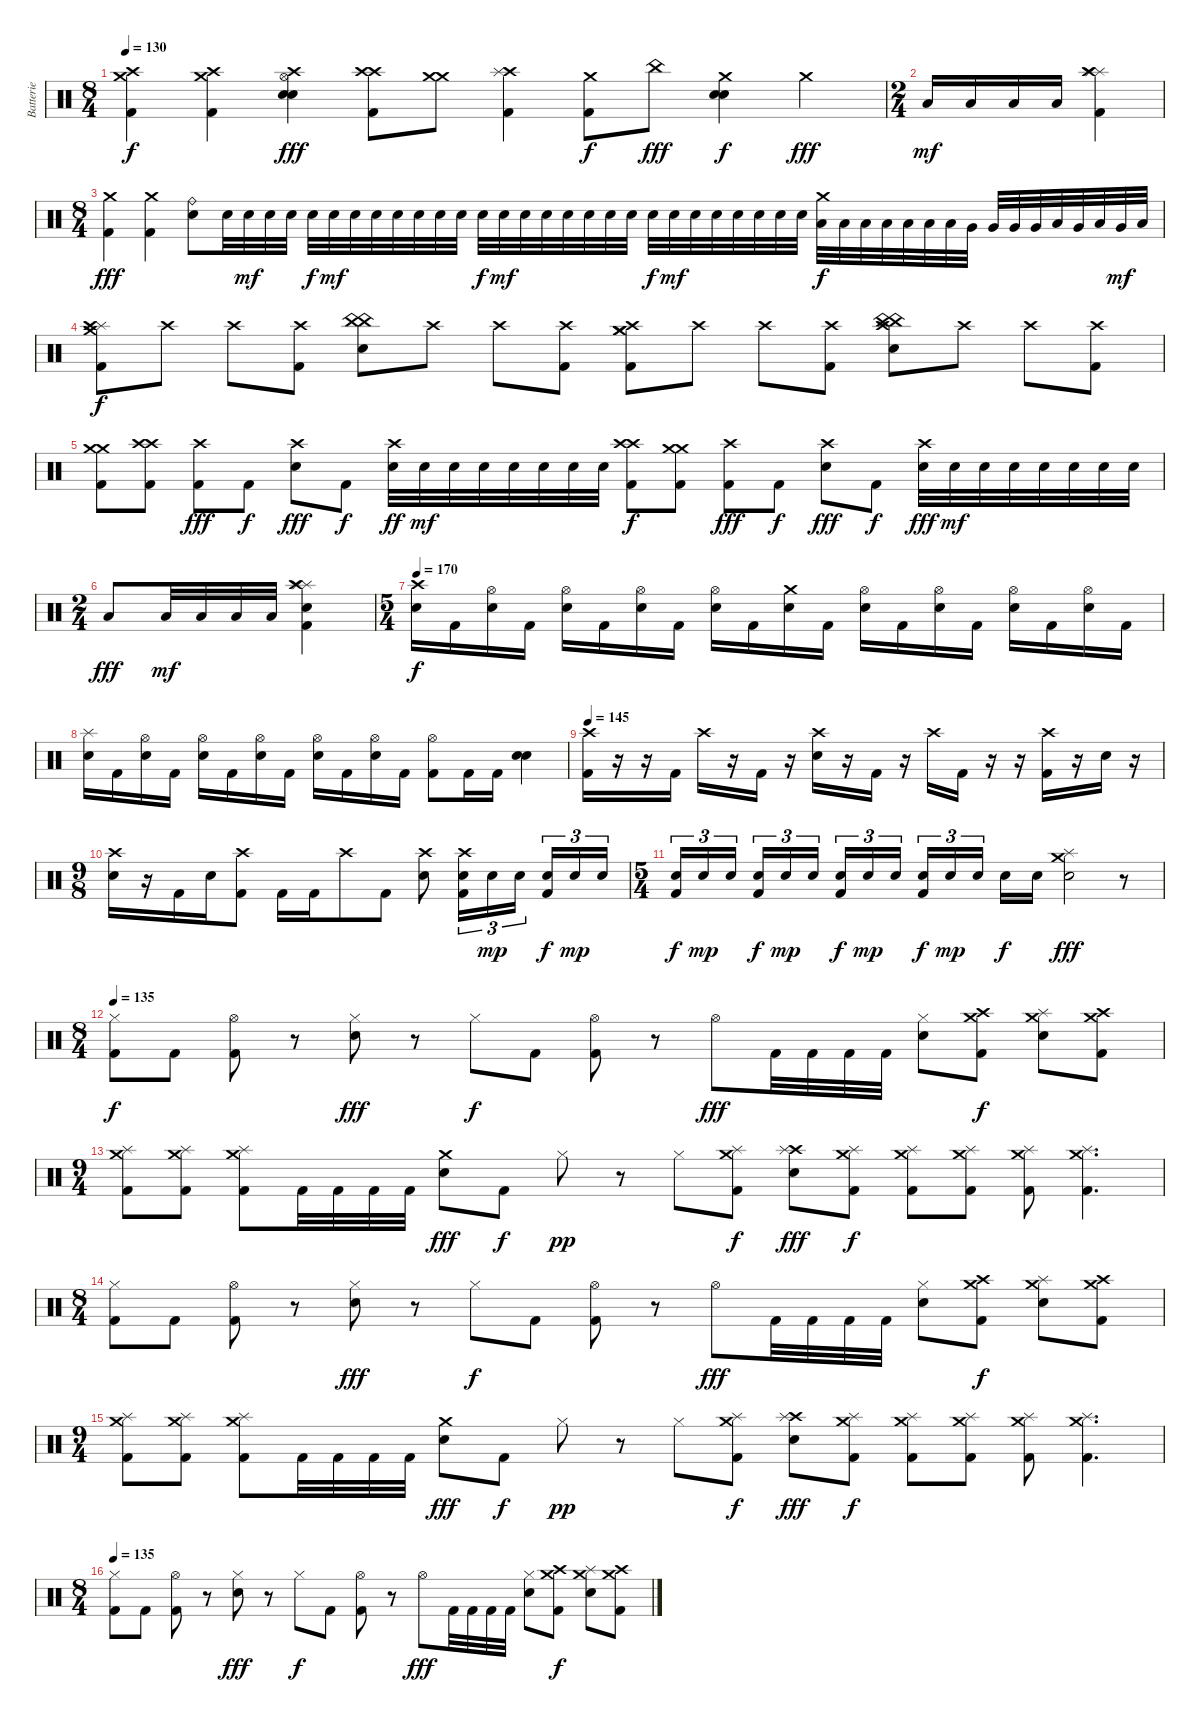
\track ("Batterie" "Batterie") {instrument percussion}
\staff {score}
\articulation defaults
\ts (8 4)
\tempo 130
\clef neutral
\ks c
("Crash high (hit)" "Crash medium (hit)" "Kick (hit) 2").4{dy f} ("Crash high (hit)" "Crash medium (hit)" "Kick (hit) 2").4 ("Crash high (hit)" "Hi-Hat (open)" "Electric Snare (hit)" "Electric Snare (hit)").4{dy fff} ("Crash high (hit)" "Crash high (hit)" "Kick (hit) 2").8 ("Crash medium (hit)" "Crash medium (hit)").8 ("Crash high (hit)" "Splash (hit)" "Kick (hit) 2").4 ("Crash medium (hit)" "Kick (hit) 2").8{dy f} "China (hit)".8{dy fff} ("Crash medium (hit)" "Electric Snare (hit)" "Electric Snare (hit)").4{dy f} "Crash medium (hit)".4{dy fff} |
\ts (2 4)
"Low Floor Tom (hit)".16{dy mf} "Low Floor Tom (hit)".16 "Low Floor Tom (hit)".16 "Low Floor Tom (hit)".16 ("Splash (hit)" "Crash high (hit)" "Splash (hit)" "Kick (hit) 2").4 |
\ts (8 4)
("Crash medium (hit)" "Kick (hit) 2").4{dy fff} ("Crash medium (hit)" "Kick (hit) 2").4 ("Ride (bell)" "Electric Snare (hit)").8 "Electric Snare (hit)".32 "Electric Snare (hit)".32{dy mf} "Electric Snare (hit)".32 "Electric Snare (hit)".32 "Electric Snare (hit)".32{dy f} "Electric Snare (hit)".32{dy mf} "Electric Snare (hit)".32 "Electric Snare (hit)".32 "Electric Snare (hit)".32 "Electric Snare (hit)".32 "Electric Snare (hit)".32 "Electric Snare (hit)".32 "Electric Snare (hit)".32{dy f} "Electric Snare (hit)".32{dy mf} "Electric Snare (hit)".32 "Electric Snare (hit)".32 "Electric Snare (hit)".32 "Electric Snare (hit)".32 "Electric Snare (hit)".32 "Electric Snare (hit)".32 "Electric Snare (hit)".32{dy f} "Electric Snare (hit)".32{dy mf} "Electric Snare (hit)".32 "Electric Snare (hit)".32 "Electric Snare (hit)".32 "Electric Snare (hit)".32 "Electric Snare (hit)".32 "Electric Snare (hit)".32 ("Crash medium (hit)" "Low Tom (hit)").32{dy f} "Low Tom (hit)".32 "Low Tom (hit)".32 "Low Tom (hit)".32 "Low Tom (hit)".32 "Low Tom (hit)".32 "Low Tom (hit)".32 "Very Low Tom (hit)".32 "Very Low Tom (hit)".32 "Very Low Tom (hit)".32 "Very Low Tom (hit)".32 "Low Tom (hit)".32 "Very Low Tom (hit)".32 "Low Floor Tom (hit)".32 "Very Low Tom (hit)".32{dy mf} "Low Floor Tom (hit)".32 |
("Crash medium (hit)" "Splash (hit)" "Crash high (hit)" "Kick (hit) 2").8{dy f} "Crash high (hit)".8 "Crash high (hit)".8 ("Crash high (hit)" "Kick (hit) 2").8 ("China (hit)" "China (hit)" "Electric Snare (hit)").8 "Crash high (hit)".8 "Crash high (hit)".8 ("Crash high (hit)" "Kick (hit) 2").8 ("Crash medium (hit)" "Crash medium (hit)" "Crash high (hit)" "Kick (hit) 2").8 "Crash high (hit)".8 "Crash high (hit)".8 ("Crash high (hit)" "Kick (hit) 2").8 ("China (hit)" "China (hit)" "Crash high (hit)" "Electric Snare (hit)").8 "Crash high (hit)".8 "Crash high (hit)".8 ("Crash high (hit)" "Kick (hit) 2").8 |
("Crash medium (hit)" "Crash medium (hit)" "Kick (hit) 2").8 ("Crash high (hit)" "Crash high (hit)" "Kick (hit) 2").8 ("Crash high (hit)" "Kick (hit) 2").8{dy fff} "Kick (hit) 2".8{dy f} ("Crash high (hit)" "Electric Snare (hit)").8{dy fff} "Kick (hit) 2".8{dy f} ("Crash high (hit)" "Electric Snare (hit)").32{dy ff} "Electric Snare (hit)".32{dy mf} "Electric Snare (hit)".32 "Electric Snare (hit)".32 "Electric Snare (hit)".32 "Electric Snare (hit)".32 "Electric Snare (hit)".32 "Electric Snare (hit)".32 ("Crash high (hit)" "Crash high (hit)" "Kick (hit) 2").8{dy f} ("Crash medium (hit)" "Crash medium (hit)" "Kick (hit) 2").8 ("Crash high (hit)" "Kick (hit) 2").8{dy fff} "Kick (hit) 2".8{dy f} ("Crash high (hit)" "Electric Snare (hit)").8{dy fff} "Kick (hit) 2".8{dy f} ("Crash high (hit)" "Electric Snare (hit)").32{dy fff} "Electric Snare (hit)".32{dy mf} "Electric Snare (hit)".32 "Electric Snare (hit)".32 "Electric Snare (hit)".32 "Electric Snare (hit)".32 "Electric Snare (hit)".32 "Electric Snare (hit)".32 |
\ts (2 4)
"Low Floor Tom (hit)".8{dy fff} "Low Floor Tom (hit)".32{dy mf} "Low Floor Tom (hit)".32 "Low Floor Tom (hit)".32 "Low Floor Tom (hit)".32 ("Splash (hit)" "Crash high (hit)" "Splash (hit)" "Electric Snare (hit)" "Kick (hit) 2").4 |
\ts (5 4)
\tempo 170
("Crash high (hit)" "Electric Snare (hit)").16{dy f} "Kick (hit) 2".16 ("Hi-Hat (open)" "Electric Snare (hit)").16 "Kick (hit) 2".16 ("Hi-Hat (open)" "Electric Snare (hit)").16 "Kick (hit) 2".16 ("Hi-Hat (open)" "Electric Snare (hit)").16 "Kick (hit) 2".16 ("Hi-Hat (open)" "Electric Snare (hit)").16 "Kick (hit) 2".16 ("Crash medium (hit)" "Electric Snare (hit)").16 "Kick (hit) 2".16 ("Hi-Hat (open)" "Electric Snare (hit)").16 "Kick (hit) 2".16 ("Hi-Hat (open)" "Electric Snare (hit)").16 "Kick (hit) 2".16 ("Hi-Hat (open)" "Electric Snare (hit)").16 "Kick (hit) 2".16 ("Hi-Hat (open)" "Electric Snare (hit)").16 "Kick (hit) 2".16 |
("Splash (hit)" "Electric Snare (hit)").16 "Kick (hit) 2".16 ("Hi-Hat (open)" "Electric Snare (hit)").16 "Kick (hit) 2".16 ("Hi-Hat (open)" "Electric Snare (hit)").16 "Kick (hit) 2".16 ("Hi-Hat (open)" "Electric Snare (hit)").16 "Kick (hit) 2".16 ("Hi-Hat (open)" "Electric Snare (hit)").16 "Kick (hit) 2".16 ("Hi-Hat (open)" "Electric Snare (hit)").16 "Kick (hit) 2".16 ("Hi-Hat (open)" "Kick (hit) 2").8 "Kick (hit) 2".16 "Kick (hit) 2".16 ("Electric Snare (hit)" "Electric Snare (hit)").4 |
\tempo 145
("Crash high (hit)" "Kick (hit) 2").16 r.16 r.16 "Kick (hit) 2".16 "Crash high (hit)".16 r.16 "Kick (hit) 2".16 r.16 ("Crash high (hit)" "Electric Snare (hit)").16 r.16 "Kick (hit) 2".16 r.16 "Crash high (hit)".16 "Kick (hit) 2".16 r.16 r.16 ("Crash high (hit)" "Kick (hit) 2").16 r.16 "Electric Snare (hit)".16 r.16 |
\ts (9 8)
("Crash high (hit)" "Electric Snare (hit)").16 r.16 "Kick (hit) 2".16 "Electric Snare (hit)".16 ("Crash high (hit)" "Kick (hit) 2").8 "Kick (hit) 2".16 "Kick (hit) 2".16 "Crash high (hit)".8 "Kick (hit) 2".8 ("Crash high (hit)" "Electric Snare (hit)").8 ("Crash high (hit)" "Electric Snare (hit)" "Kick (hit) 2").16{tu (3 2)} "Electric Snare (hit)".16{tu (3 2) dy mp} "Electric Snare (hit)".16{tu (3 2) beam splitsecondary} ("Electric Snare (hit)" "Kick (hit) 2").16{tu (3 2) dy f} "Electric Snare (hit)".16{tu (3 2) dy mp} "Electric Snare (hit)".16{tu (3 2)} |
\ts (5 4)
("Electric Snare (hit)" "Kick (hit) 2").16{tu (3 2) dy f} "Electric Snare (hit)".16{tu (3 2) dy mp} "Electric Snare (hit)".16{tu (3 2) beam splitsecondary} ("Electric Snare (hit)" "Kick (hit) 2").16{tu (3 2) dy f} "Electric Snare (hit)".16{tu (3 2) dy mp} "Electric Snare (hit)".16{tu (3 2)} ("Electric Snare (hit)" "Kick (hit) 2").16{tu (3 2) dy f} "Electric Snare (hit)".16{tu (3 2) dy mp} "Electric Snare (hit)".16{tu (3 2) beam splitsecondary} ("Electric Snare (hit)" "Kick (hit) 2").16{tu (3 2) dy f} "Electric Snare (hit)".16{tu (3 2) dy mp} "Electric Snare (hit)".16{tu (3 2)} "Electric Snare (hit)".16{dy f} "Electric Snare (hit)".16 ("Crash medium (hit)" "Splash (hit)" "Electric Snare (hit)").2{dy fff} r.8 |
\ts (8 4)
\tempo 135
("Hi-Hat (closed)" "Kick (hit) 2").8{dy f} "Kick (hit) 2".8 ("Hi-Hat (open)" "Kick (hit) 2").8 r.8 ("Hi-Hat (closed)" "Electric Snare (hit)").8{dy fff} r.8 "Hi-Hat (closed)".8{dy f} "Kick (hit) 2".8 ("Hi-Hat (open)" "Kick (hit) 2").8 r.8 "Hi-Hat (open)".8{dy fff} "Kick (hit) 2".32 "Kick (hit) 2".32 "Kick (hit) 2".32 "Kick (hit) 2".32 ("Hi-Hat (closed)" "Electric Snare (hit)").8 ("Crash medium (hit)" "Crash high (hit)" "Kick (hit) 2").8{dy f} ("Crash medium (hit)" "Splash (hit)" "Electric Snare (hit)").8 ("Crash medium (hit)" "Crash high (hit)" "Kick (hit) 2").8 |
\ts (9 4)
("Splash (hit)" "Crash medium (hit)" "Kick (hit) 2").8 ("Splash (hit)" "Crash medium (hit)" "Kick (hit) 2").8 ("Splash (hit)" "Crash medium (hit)" "Kick (hit) 2").8 "Kick (hit) 2".32 "Kick (hit) 2".32 "Kick (hit) 2".32 "Kick (hit) 2".32 ("Crash medium (hit)" "Electric Snare (hit)").8{dy fff} "Kick (hit) 2".8{dy f} "Hi-Hat (closed)".8{dy pp} r.8 "Hi-Hat (closed)".8 ("Crash medium (hit)" "Splash (hit)" "Kick (hit) 2").8{dy f} ("Crash high (hit)" "Splash (hit)" "Electric Snare (hit)").8{dy fff} ("Crash medium (hit)" "Splash (hit)" "Kick (hit) 2").8{dy f} ("Splash (hit)" "Crash medium (hit)" "Kick (hit) 2").8 ("Splash (hit)" "Crash medium (hit)" "Kick (hit) 2").8 ("Splash (hit)" "Crash medium (hit)" "Kick (hit) 2").8 ("Splash (hit)" "Crash medium (hit)" "Kick (hit) 2").4{d} |
\ts (8 4)
("Hi-Hat (closed)" "Kick (hit) 2").8 "Kick (hit) 2".8 ("Hi-Hat (open)" "Kick (hit) 2").8 r.8 ("Hi-Hat (closed)" "Electric Snare (hit)").8{dy fff} r.8 "Hi-Hat (closed)".8{dy f} "Kick (hit) 2".8 ("Hi-Hat (open)" "Kick (hit) 2").8 r.8 "Hi-Hat (open)".8{dy fff} "Kick (hit) 2".32 "Kick (hit) 2".32 "Kick (hit) 2".32 "Kick (hit) 2".32 ("Hi-Hat (closed)" "Electric Snare (hit)").8 ("Crash medium (hit)" "Crash high (hit)" "Kick (hit) 2").8{dy f} ("Crash medium (hit)" "Splash (hit)" "Electric Snare (hit)").8 ("Crash medium (hit)" "Crash high (hit)" "Kick (hit) 2").8 |
\ts (9 4)
("Splash (hit)" "Crash medium (hit)" "Kick (hit) 2").8 ("Splash (hit)" "Crash medium (hit)" "Kick (hit) 2").8 ("Splash (hit)" "Crash medium (hit)" "Kick (hit) 2").8 "Kick (hit) 2".32 "Kick (hit) 2".32 "Kick (hit) 2".32 "Kick (hit) 2".32 ("Crash medium (hit)" "Electric Snare (hit)").8{dy fff} "Kick (hit) 2".8{dy f} "Hi-Hat (closed)".8{dy pp} r.8 "Hi-Hat (closed)".8 ("Crash medium (hit)" "Splash (hit)" "Kick (hit) 2").8{dy f} ("Crash high (hit)" "Splash (hit)" "Electric Snare (hit)").8{dy fff} ("Crash medium (hit)" "Splash (hit)" "Kick (hit) 2").8{dy f} ("Splash (hit)" "Crash medium (hit)" "Kick (hit) 2").8 ("Splash (hit)" "Crash medium (hit)" "Kick (hit) 2").8 ("Splash (hit)" "Crash medium (hit)" "Kick (hit) 2").8 ("Splash (hit)" "Crash medium (hit)" "Kick (hit) 2").4{d} |
\ts (8 4)
\tempo 135
("Hi-Hat (closed)" "Kick (hit) 2").8 "Kick (hit) 2".8 ("Hi-Hat (open)" "Kick (hit) 2").8 r.8 ("Hi-Hat (closed)" "Electric Snare (hit)").8{dy fff} r.8 "Hi-Hat (closed)".8{dy f} "Kick (hit) 2".8 ("Hi-Hat (open)" "Kick (hit) 2").8 r.8 "Hi-Hat (open)".8{dy fff} "Kick (hit) 2".32 "Kick (hit) 2".32 "Kick (hit) 2".32 "Kick (hit) 2".32 ("Hi-Hat (closed)" "Electric Snare (hit)").8 ("Crash medium (hit)" "Crash high (hit)" "Kick (hit) 2").8{dy f} ("Crash medium (hit)" "Splash (hit)" "Electric Snare (hit)").8 ("Crash medium (hit)" "Crash high (hit)" "Kick (hit) 2").8
